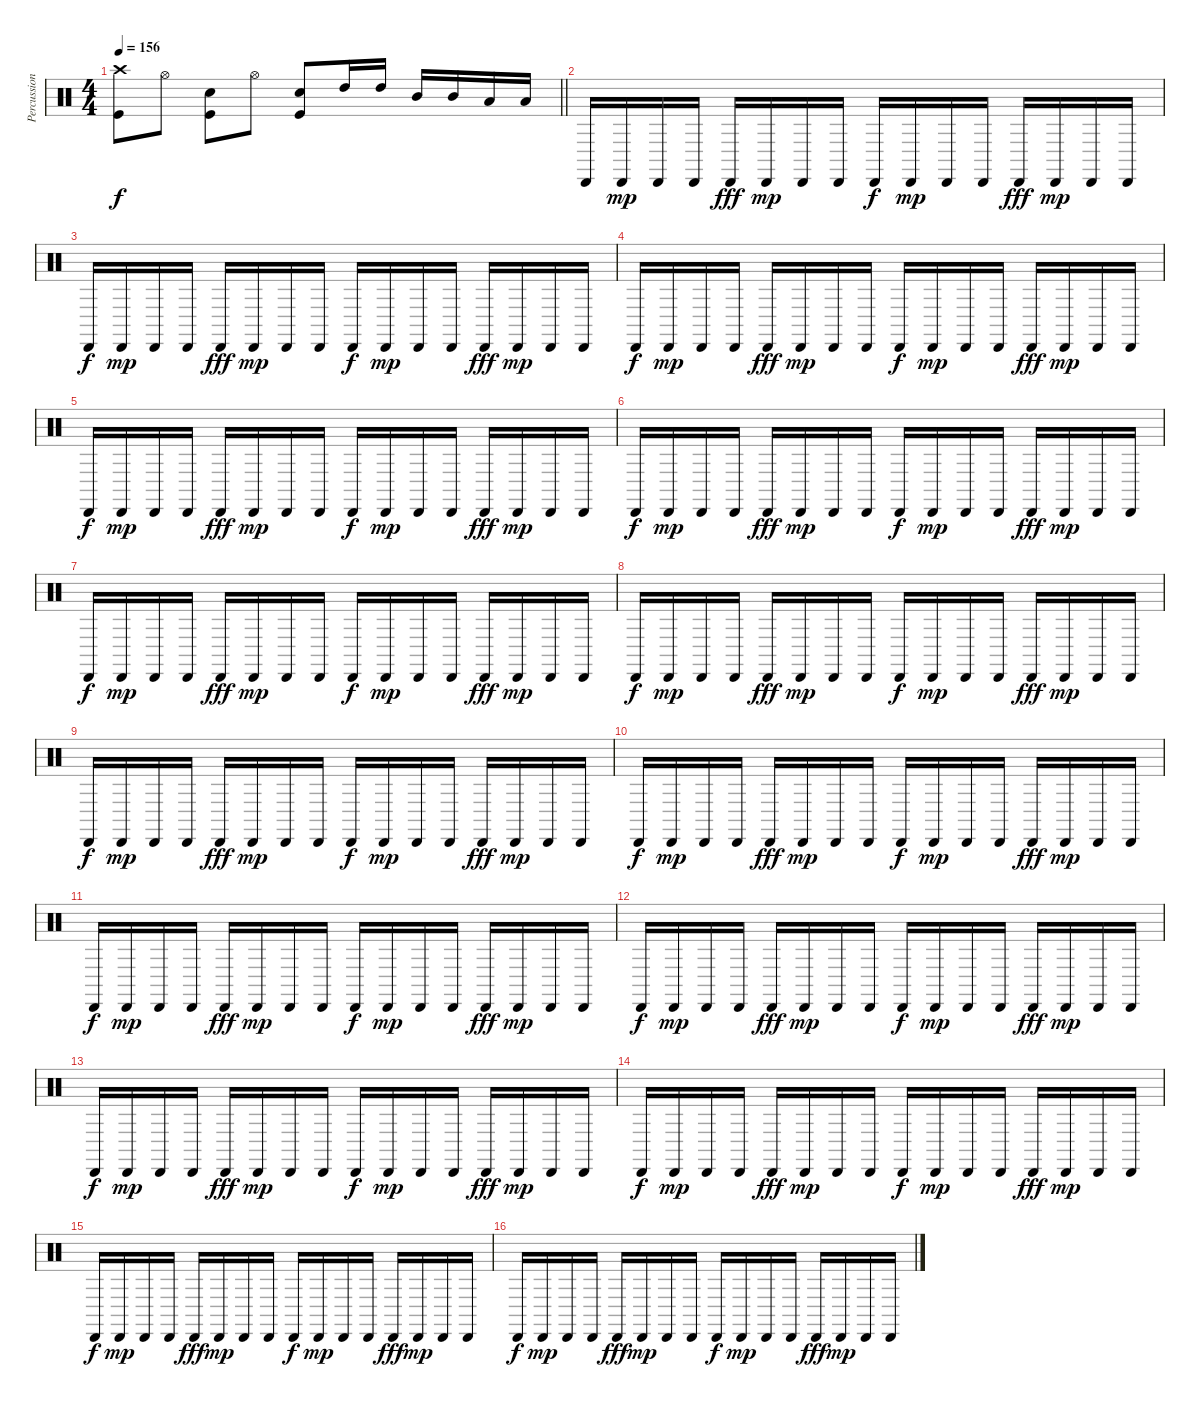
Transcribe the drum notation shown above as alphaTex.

\track ("Percussion" "Percussion") {instrument percussion}
\staff {score}
\articulation defaults
\ts (4 4)
\tempo 156
\clef neutral
\barLineRight lightlight
\ks c
("Crash high (hit)" "Kick (hit)").8{dy f} "Hi-Hat (open)".8 ("Snare (hit) 2" "Kick (hit)").8 "Hi-Hat (open)".8 ("Snare (hit) 2" "Kick (hit)").8 "High Tom (hit)".16 "High Tom (hit)".16 "Mid Tom (hit)".16 "Mid Tom (hit)".16 "Low Floor Tom (hit)".16 "Low Floor Tom (hit)".16 |
"Cabasa (hit)".16 "Cabasa (hit)".16{dy mp} "Cabasa (hit)".16 "Cabasa (hit)".16 "Cabasa (hit)".16{dy fff} "Cabasa (hit)".16{dy mp} "Cabasa (hit)".16 "Cabasa (hit)".16 "Cabasa (hit)".16{dy f} "Cabasa (hit)".16{dy mp} "Cabasa (hit)".16 "Cabasa (hit)".16 "Cabasa (hit)".16{dy fff} "Cabasa (hit)".16{dy mp} "Cabasa (hit)".16 "Cabasa (hit)".16 |
"Cabasa (hit)".16{dy f} "Cabasa (hit)".16{dy mp} "Cabasa (hit)".16 "Cabasa (hit)".16 "Cabasa (hit)".16{dy fff} "Cabasa (hit)".16{dy mp} "Cabasa (hit)".16 "Cabasa (hit)".16 "Cabasa (hit)".16{dy f} "Cabasa (hit)".16{dy mp} "Cabasa (hit)".16 "Cabasa (hit)".16 "Cabasa (hit)".16{dy fff} "Cabasa (hit)".16{dy mp} "Cabasa (hit)".16 "Cabasa (hit)".16 |
"Cabasa (hit)".16{dy f} "Cabasa (hit)".16{dy mp} "Cabasa (hit)".16 "Cabasa (hit)".16 "Cabasa (hit)".16{dy fff} "Cabasa (hit)".16{dy mp} "Cabasa (hit)".16 "Cabasa (hit)".16 "Cabasa (hit)".16{dy f} "Cabasa (hit)".16{dy mp} "Cabasa (hit)".16 "Cabasa (hit)".16 "Cabasa (hit)".16{dy fff} "Cabasa (hit)".16{dy mp} "Cabasa (hit)".16 "Cabasa (hit)".16 |
"Cabasa (hit)".16{dy f} "Cabasa (hit)".16{dy mp} "Cabasa (hit)".16 "Cabasa (hit)".16 "Cabasa (hit)".16{dy fff} "Cabasa (hit)".16{dy mp} "Cabasa (hit)".16 "Cabasa (hit)".16 "Cabasa (hit)".16{dy f} "Cabasa (hit)".16{dy mp} "Cabasa (hit)".16 "Cabasa (hit)".16 "Cabasa (hit)".16{dy fff} "Cabasa (hit)".16{dy mp} "Cabasa (hit)".16 "Cabasa (hit)".16 |
"Cabasa (hit)".16{dy f} "Cabasa (hit)".16{dy mp} "Cabasa (hit)".16 "Cabasa (hit)".16 "Cabasa (hit)".16{dy fff} "Cabasa (hit)".16{dy mp} "Cabasa (hit)".16 "Cabasa (hit)".16 "Cabasa (hit)".16{dy f} "Cabasa (hit)".16{dy mp} "Cabasa (hit)".16 "Cabasa (hit)".16 "Cabasa (hit)".16{dy fff} "Cabasa (hit)".16{dy mp} "Cabasa (hit)".16 "Cabasa (hit)".16 |
"Cabasa (hit)".16{dy f} "Cabasa (hit)".16{dy mp} "Cabasa (hit)".16 "Cabasa (hit)".16 "Cabasa (hit)".16{dy fff} "Cabasa (hit)".16{dy mp} "Cabasa (hit)".16 "Cabasa (hit)".16 "Cabasa (hit)".16{dy f} "Cabasa (hit)".16{dy mp} "Cabasa (hit)".16 "Cabasa (hit)".16 "Cabasa (hit)".16{dy fff} "Cabasa (hit)".16{dy mp} "Cabasa (hit)".16 "Cabasa (hit)".16 |
"Cabasa (hit)".16{dy f} "Cabasa (hit)".16{dy mp} "Cabasa (hit)".16 "Cabasa (hit)".16 "Cabasa (hit)".16{dy fff} "Cabasa (hit)".16{dy mp} "Cabasa (hit)".16 "Cabasa (hit)".16 "Cabasa (hit)".16{dy f} "Cabasa (hit)".16{dy mp} "Cabasa (hit)".16 "Cabasa (hit)".16 "Cabasa (hit)".16{dy fff} "Cabasa (hit)".16{dy mp} "Cabasa (hit)".16 "Cabasa (hit)".16 |
"Cabasa (hit)".16{dy f} "Cabasa (hit)".16{dy mp} "Cabasa (hit)".16 "Cabasa (hit)".16 "Cabasa (hit)".16{dy fff} "Cabasa (hit)".16{dy mp} "Cabasa (hit)".16 "Cabasa (hit)".16 "Cabasa (hit)".16{dy f} "Cabasa (hit)".16{dy mp} "Cabasa (hit)".16 "Cabasa (hit)".16 "Cabasa (hit)".16{dy fff} "Cabasa (hit)".16{dy mp} "Cabasa (hit)".16 "Cabasa (hit)".16 |
"Cabasa (hit)".16{dy f} "Cabasa (hit)".16{dy mp} "Cabasa (hit)".16 "Cabasa (hit)".16 "Cabasa (hit)".16{dy fff} "Cabasa (hit)".16{dy mp} "Cabasa (hit)".16 "Cabasa (hit)".16 "Cabasa (hit)".16{dy f} "Cabasa (hit)".16{dy mp} "Cabasa (hit)".16 "Cabasa (hit)".16 "Cabasa (hit)".16{dy fff} "Cabasa (hit)".16{dy mp} "Cabasa (hit)".16 "Cabasa (hit)".16 |
"Cabasa (hit)".16{dy f} "Cabasa (hit)".16{dy mp} "Cabasa (hit)".16 "Cabasa (hit)".16 "Cabasa (hit)".16{dy fff} "Cabasa (hit)".16{dy mp} "Cabasa (hit)".16 "Cabasa (hit)".16 "Cabasa (hit)".16{dy f} "Cabasa (hit)".16{dy mp} "Cabasa (hit)".16 "Cabasa (hit)".16 "Cabasa (hit)".16{dy fff} "Cabasa (hit)".16{dy mp} "Cabasa (hit)".16 "Cabasa (hit)".16 |
"Cabasa (hit)".16{dy f} "Cabasa (hit)".16{dy mp} "Cabasa (hit)".16 "Cabasa (hit)".16 "Cabasa (hit)".16{dy fff} "Cabasa (hit)".16{dy mp} "Cabasa (hit)".16 "Cabasa (hit)".16 "Cabasa (hit)".16{dy f} "Cabasa (hit)".16{dy mp} "Cabasa (hit)".16 "Cabasa (hit)".16 "Cabasa (hit)".16{dy fff} "Cabasa (hit)".16{dy mp} "Cabasa (hit)".16 "Cabasa (hit)".16 |
"Cabasa (hit)".16{dy f} "Cabasa (hit)".16{dy mp} "Cabasa (hit)".16 "Cabasa (hit)".16 "Cabasa (hit)".16{dy fff} "Cabasa (hit)".16{dy mp} "Cabasa (hit)".16 "Cabasa (hit)".16 "Cabasa (hit)".16{dy f} "Cabasa (hit)".16{dy mp} "Cabasa (hit)".16 "Cabasa (hit)".16 "Cabasa (hit)".16{dy fff} "Cabasa (hit)".16{dy mp} "Cabasa (hit)".16 "Cabasa (hit)".16 |
"Cabasa (hit)".16{dy f} "Cabasa (hit)".16{dy mp} "Cabasa (hit)".16 "Cabasa (hit)".16 "Cabasa (hit)".16{dy fff} "Cabasa (hit)".16{dy mp} "Cabasa (hit)".16 "Cabasa (hit)".16 "Cabasa (hit)".16{dy f} "Cabasa (hit)".16{dy mp} "Cabasa (hit)".16 "Cabasa (hit)".16 "Cabasa (hit)".16{dy fff} "Cabasa (hit)".16{dy mp} "Cabasa (hit)".16 "Cabasa (hit)".16 |
"Cabasa (hit)".16{dy f} "Cabasa (hit)".16{dy mp} "Cabasa (hit)".16 "Cabasa (hit)".16 "Cabasa (hit)".16{dy fff} "Cabasa (hit)".16{dy mp} "Cabasa (hit)".16 "Cabasa (hit)".16 "Cabasa (hit)".16{dy f} "Cabasa (hit)".16{dy mp} "Cabasa (hit)".16 "Cabasa (hit)".16 "Cabasa (hit)".16{dy fff} "Cabasa (hit)".16{dy mp} "Cabasa (hit)".16 "Cabasa (hit)".16 |
"Cabasa (hit)".16{dy f} "Cabasa (hit)".16{dy mp} "Cabasa (hit)".16 "Cabasa (hit)".16 "Cabasa (hit)".16{dy fff} "Cabasa (hit)".16{dy mp} "Cabasa (hit)".16 "Cabasa (hit)".16 "Cabasa (hit)".16{dy f} "Cabasa (hit)".16{dy mp} "Cabasa (hit)".16 "Cabasa (hit)".16 "Cabasa (hit)".16{dy fff} "Cabasa (hit)".16{dy mp} "Cabasa (hit)".16 "Cabasa (hit)".16
